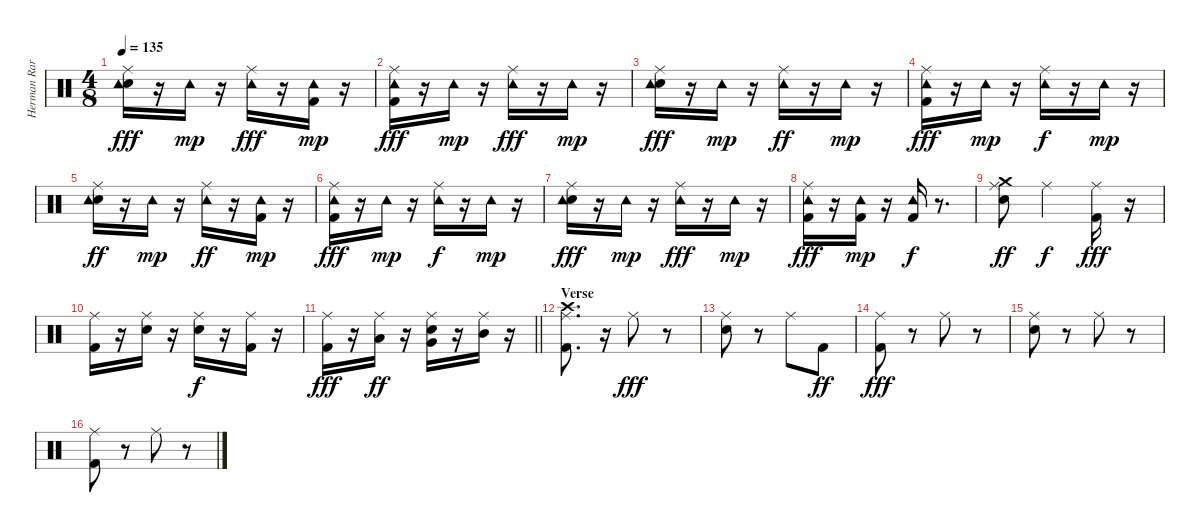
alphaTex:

\track ("Herman Rarebell" "Herman Rar") {instrument percussion}
\staff {score}
\articulation defaults
\ts (4 8)
\tempo 135
\clef neutral
\ks c
("Snare (hit) 2" "Ride (middle)" "Tambourine (hit)").16{dy fff} r.16 "Tambourine (hit)".16{dy mp} r.16 ("Ride (middle)" "Tambourine (hit)").16{dy fff} r.16 ("Kick (hit) 2" "Tambourine (hit)").16{dy mp} r.16 |
("Kick (hit) 2" "Ride (middle)" "Tambourine (hit)").16{dy fff} r.16 "Tambourine (hit)".16{dy mp} r.16 ("Ride (middle)" "Tambourine (hit)").16{dy fff} r.16 "Tambourine (hit)".16{dy mp} r.16 |
("Snare (hit) 2" "Ride (middle)" "Tambourine (hit)").16{dy fff} r.16 "Tambourine (hit)".16{dy mp} r.16 ("Ride (middle)" "Tambourine (hit)").16{dy ff} r.16 "Tambourine (hit)".16{dy mp} r.16 |
("Kick (hit) 2" "Ride (middle)" "Tambourine (hit)").16{dy fff} r.16 "Tambourine (hit)".16{dy mp} r.16 ("Ride (middle)" "Tambourine (hit)").16{dy f} r.16 "Tambourine (hit)".16{dy mp} r.16 |
("Snare (hit) 2" "Ride (middle)" "Tambourine (hit)").16{dy ff} r.16 "Tambourine (hit)".16{dy mp} r.16 ("Ride (middle)" "Tambourine (hit)").16{dy ff} r.16 ("Kick (hit) 2" "Tambourine (hit)").16{dy mp} r.16 |
("Kick (hit) 2" "Ride (middle)" "Tambourine (hit)").16{dy fff} r.16 "Tambourine (hit)".16{dy mp} r.16 ("Ride (middle)" "Tambourine (hit)").16{dy f} r.16 "Tambourine (hit)".16{dy mp} r.16 |
("Snare (hit) 2" "Ride (middle)" "Tambourine (hit)").16{dy fff} r.16 "Tambourine (hit)".16{dy mp} r.16 ("Ride (middle)" "Tambourine (hit)").16{dy fff} r.16 "Tambourine (hit)".16{dy mp} r.16 |
("Kick (hit) 2" "Ride (middle)" "Tambourine (hit)").16{dy fff} r.16 ("Tambourine (hit)" "Kick (hit) 2").16{dy mp} r.16 ("Kick (hit) 2" "Tambourine (hit)").16{dy f} r.8{d} |
("Snare (hit) 2" "Ride (middle)" "Crash medium (hit)").8{dy ff} "Ride (middle)".4{dy f} ("Ride (middle)" "Kick (hit) 2").16{dy fff} r.16 |
("Ride (middle)" "Kick (hit) 2").16 r.16 ("Snare (hit) 2" "Ride (middle)").16 r.16 ("Ride (middle)" "Snare (hit) 2").16{dy f} r.16 ("Ride (middle)" "Kick (hit) 2").16 r.16 |
\barLineRight lightlight
("Ride (middle)" "Kick (hit) 2").16{dy fff} r.16 ("Ride (middle)" "Low Floor Tom (hit)").16{dy ff} r.16 ("Ride (middle)" "Very Low Tom (hit)" "Snare (hit) 2").16 r.16 ("Ride (middle)" "Mid Tom (hit)").16 r.16 |
\section ("" "Verse")
("Kick (hit) 2" "Ride (middle)" "Crash high (hit)").8{d} r.16 "Ride (middle)".8{dy fff} r.8 |
("Snare (hit) 2" "Ride (middle)").8 r.8 "Ride (middle)".8 "Kick (hit) 2".8{dy ff} |
("Kick (hit) 2" "Ride (middle)").8{dy fff} r.8 "Ride (middle)".8 r.8 |
("Snare (hit) 2" "Ride (middle)").8 r.8 "Ride (middle)".8 r.8 |
("Kick (hit) 2" "Ride (middle)").8 r.8 "Ride (middle)".8 r.8
